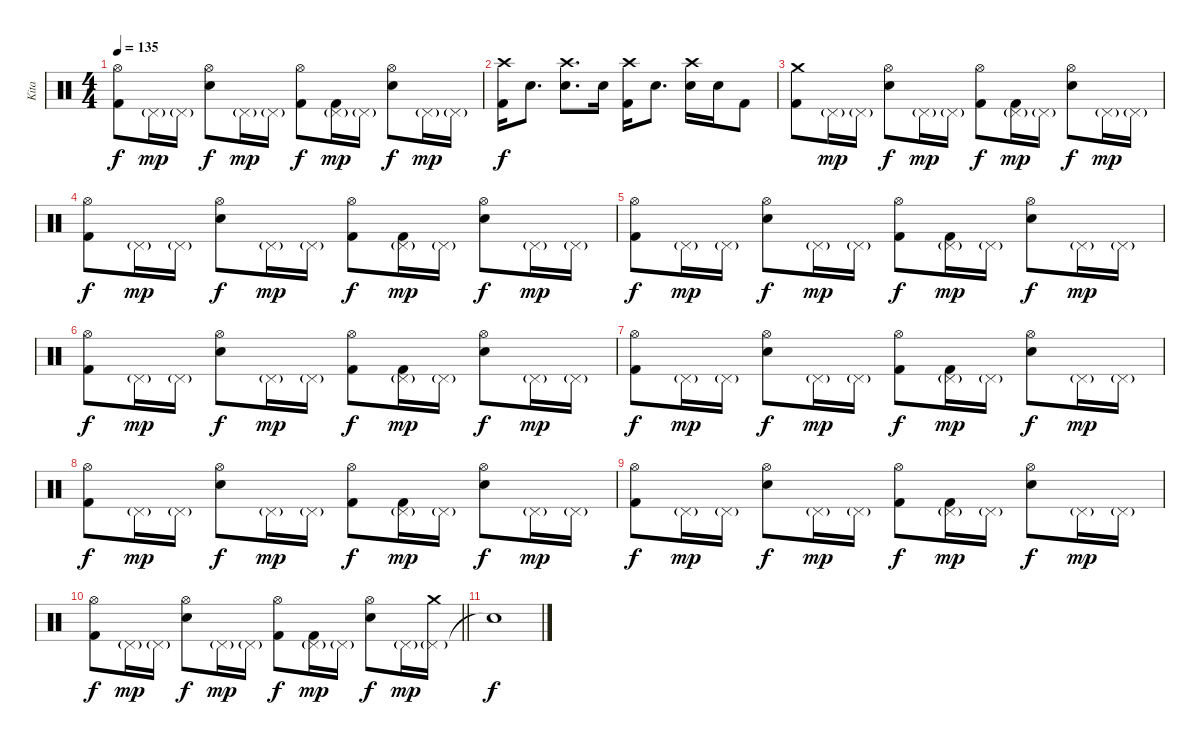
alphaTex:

\track ("Kita" "Kita") {instrument percussion}
\staff {score}
\articulation defaults
\ts (4 4)
\tempo 135
\clef neutral
\ks c
("Hi-Hat (open)" "Kick (hit) 2").8{dy f} "Pedal Hi-Hat (hit)"{g}.16{dy mp} "Pedal Hi-Hat (hit)"{g}.16 ("Hi-Hat (open)" "Snare (hit) 2").8{dy f} "Pedal Hi-Hat (hit)"{g}.16{dy mp} "Pedal Hi-Hat (hit)"{g}.16 ("Hi-Hat (open)" "Kick (hit) 2").8{dy f} ("Pedal Hi-Hat (hit)"{g} "Kick (hit) 2").16{dy mp} "Pedal Hi-Hat (hit)"{g}.16 ("Hi-Hat (open)" "Snare (hit) 2").8{dy f} "Pedal Hi-Hat (hit)"{g}.16{dy mp} "Pedal Hi-Hat (hit)"{g}.16 |
("Crash high (hit)" "Kick (hit) 2").16{dy f} "Snare (hit) 2".8{d} ("Crash high (hit)" "Snare (hit) 2").8{d} "Snare (hit) 2".16 ("Crash high (hit)" "Kick (hit) 2").16 "Snare (hit) 2".8{d} ("Crash high (hit)" "Snare (hit) 2").16 "Snare (hit) 2".16 "Kick (hit) 2".8 |
("Crash medium (hit)" "Kick (hit) 2").8 "Pedal Hi-Hat (hit)"{g}.16{dy mp} "Pedal Hi-Hat (hit)"{g}.16 ("Hi-Hat (open)" "Snare (hit) 2").8{dy f} "Pedal Hi-Hat (hit)"{g}.16{dy mp} "Pedal Hi-Hat (hit)"{g}.16 ("Hi-Hat (open)" "Kick (hit) 2").8{dy f} ("Pedal Hi-Hat (hit)"{g} "Kick (hit) 2").16{dy mp} "Pedal Hi-Hat (hit)"{g}.16 ("Hi-Hat (open)" "Snare (hit) 2").8{dy f} "Pedal Hi-Hat (hit)"{g}.16{dy mp} "Pedal Hi-Hat (hit)"{g}.16 |
("Hi-Hat (open)" "Kick (hit) 2").8{dy f} "Pedal Hi-Hat (hit)"{g}.16{dy mp} "Pedal Hi-Hat (hit)"{g}.16 ("Hi-Hat (open)" "Snare (hit) 2").8{dy f} "Pedal Hi-Hat (hit)"{g}.16{dy mp} "Pedal Hi-Hat (hit)"{g}.16 ("Hi-Hat (open)" "Kick (hit) 2").8{dy f} ("Pedal Hi-Hat (hit)"{g} "Kick (hit) 2").16{dy mp} "Pedal Hi-Hat (hit)"{g}.16 ("Hi-Hat (open)" "Snare (hit) 2").8{dy f} "Pedal Hi-Hat (hit)"{g}.16{dy mp} "Pedal Hi-Hat (hit)"{g}.16 |
("Hi-Hat (open)" "Kick (hit) 2").8{dy f} "Pedal Hi-Hat (hit)"{g}.16{dy mp} "Pedal Hi-Hat (hit)"{g}.16 ("Hi-Hat (open)" "Snare (hit) 2").8{dy f} "Pedal Hi-Hat (hit)"{g}.16{dy mp} "Pedal Hi-Hat (hit)"{g}.16 ("Hi-Hat (open)" "Kick (hit) 2").8{dy f} ("Pedal Hi-Hat (hit)"{g} "Kick (hit) 2").16{dy mp} "Pedal Hi-Hat (hit)"{g}.16 ("Hi-Hat (open)" "Snare (hit) 2").8{dy f} "Pedal Hi-Hat (hit)"{g}.16{dy mp} "Pedal Hi-Hat (hit)"{g}.16 |
("Hi-Hat (open)" "Kick (hit) 2").8{dy f} "Pedal Hi-Hat (hit)"{g}.16{dy mp} "Pedal Hi-Hat (hit)"{g}.16 ("Hi-Hat (open)" "Snare (hit) 2").8{dy f} "Pedal Hi-Hat (hit)"{g}.16{dy mp} "Pedal Hi-Hat (hit)"{g}.16 ("Hi-Hat (open)" "Kick (hit) 2").8{dy f} ("Pedal Hi-Hat (hit)"{g} "Kick (hit) 2").16{dy mp} "Pedal Hi-Hat (hit)"{g}.16 ("Hi-Hat (open)" "Snare (hit) 2").8{dy f} "Pedal Hi-Hat (hit)"{g}.16{dy mp} "Pedal Hi-Hat (hit)"{g}.16 |
("Hi-Hat (open)" "Kick (hit) 2").8{dy f} "Pedal Hi-Hat (hit)"{g}.16{dy mp} "Pedal Hi-Hat (hit)"{g}.16 ("Hi-Hat (open)" "Snare (hit) 2").8{dy f} "Pedal Hi-Hat (hit)"{g}.16{dy mp} "Pedal Hi-Hat (hit)"{g}.16 ("Hi-Hat (open)" "Kick (hit) 2").8{dy f} ("Pedal Hi-Hat (hit)"{g} "Kick (hit) 2").16{dy mp} "Pedal Hi-Hat (hit)"{g}.16 ("Hi-Hat (open)" "Snare (hit) 2").8{dy f} "Pedal Hi-Hat (hit)"{g}.16{dy mp} "Pedal Hi-Hat (hit)"{g}.16 |
("Hi-Hat (open)" "Kick (hit) 2").8{dy f} "Pedal Hi-Hat (hit)"{g}.16{dy mp} "Pedal Hi-Hat (hit)"{g}.16 ("Hi-Hat (open)" "Snare (hit) 2").8{dy f} "Pedal Hi-Hat (hit)"{g}.16{dy mp} "Pedal Hi-Hat (hit)"{g}.16 ("Hi-Hat (open)" "Kick (hit) 2").8{dy f} ("Pedal Hi-Hat (hit)"{g} "Kick (hit) 2").16{dy mp} "Pedal Hi-Hat (hit)"{g}.16 ("Hi-Hat (open)" "Snare (hit) 2").8{dy f} "Pedal Hi-Hat (hit)"{g}.16{dy mp} "Pedal Hi-Hat (hit)"{g}.16 |
("Hi-Hat (open)" "Kick (hit) 2").8{dy f} "Pedal Hi-Hat (hit)"{g}.16{dy mp} "Pedal Hi-Hat (hit)"{g}.16 ("Hi-Hat (open)" "Snare (hit) 2").8{dy f} "Pedal Hi-Hat (hit)"{g}.16{dy mp} "Pedal Hi-Hat (hit)"{g}.16 ("Hi-Hat (open)" "Kick (hit) 2").8{dy f} ("Pedal Hi-Hat (hit)"{g} "Kick (hit) 2").16{dy mp} "Pedal Hi-Hat (hit)"{g}.16 ("Hi-Hat (open)" "Snare (hit) 2").8{dy f} "Pedal Hi-Hat (hit)"{g}.16{dy mp} "Pedal Hi-Hat (hit)"{g}.16 |
\barLineRight lightlight
("Hi-Hat (open)" "Kick (hit) 2").8{dy f} "Pedal Hi-Hat (hit)"{g}.16{dy mp} "Pedal Hi-Hat (hit)"{g}.16 ("Hi-Hat (open)" "Snare (hit) 2").8{dy f} "Pedal Hi-Hat (hit)"{g}.16{dy mp} "Pedal Hi-Hat (hit)"{g}.16 ("Hi-Hat (open)" "Kick (hit) 2").8{dy f} ("Pedal Hi-Hat (hit)"{g} "Kick (hit) 2").16{dy mp} "Pedal Hi-Hat (hit)"{g}.16 ("Hi-Hat (open)" "Snare (hit) 2").8{dy f} "Pedal Hi-Hat (hit)"{g}.16{dy mp} ("Pedal Hi-Hat (hit)"{g} "Crash medium (hit)").16 |
"Snare (hit)"{t}.1{dy f}
